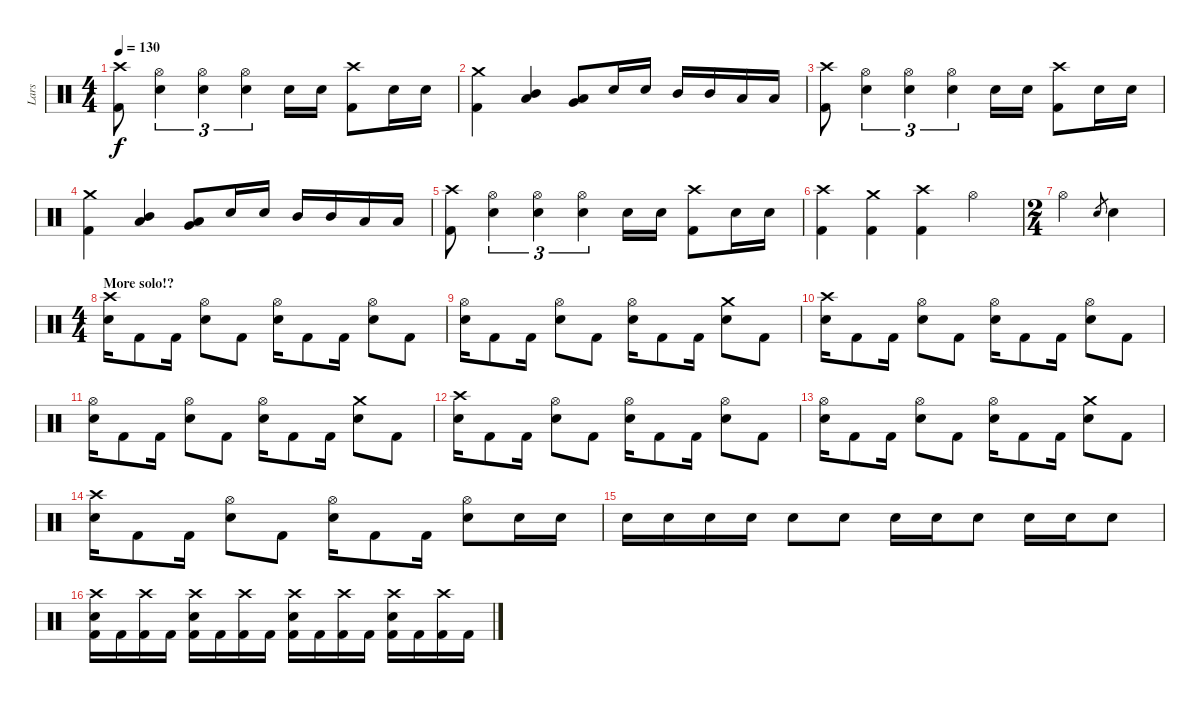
\track ("Lars" "Lars") {instrument percussion}
\staff {score}
\articulation defaults
\ts (4 4)
\tempo 130
\clef neutral
\ks c
("Kick (hit) 2" "Crash high (hit)").8{dy f} ("Electric Snare (hit)" "Hi-Hat (open)").4{tu (3 2)} ("Electric Snare (hit)" "Hi-Hat (open)").4{tu (3 2)} ("Electric Snare (hit)" "Hi-Hat (open)").4{tu (3 2)} "Electric Snare (hit)".16 "Electric Snare (hit)".16 ("Kick (hit) 2" "Crash high (hit)").8 "Electric Snare (hit)".16 "Electric Snare (hit)".16 |
("Kick (hit) 2" "Crash medium (hit)").4 ("Mid Tom (hit)" "Low Tom (hit)").4{bu 120} ("Low Tom (hit)" "Very Low Tom (hit)").8{bu 120} "Electric Snare (hit)".16 "Electric Snare (hit)".16 "Mid Tom (hit)".16 "Mid Tom (hit)".16 "Low Tom (hit)".16 "Low Tom (hit)".16 |
("Kick (hit) 2" "Crash high (hit)").8 ("Electric Snare (hit)" "Hi-Hat (open)").4{tu (3 2)} ("Electric Snare (hit)" "Hi-Hat (open)").4{tu (3 2)} ("Electric Snare (hit)" "Hi-Hat (open)").4{tu (3 2)} "Electric Snare (hit)".16 "Electric Snare (hit)".16 ("Kick (hit) 2" "Crash high (hit)").8 "Electric Snare (hit)".16 "Electric Snare (hit)".16 |
("Kick (hit) 2" "Crash medium (hit)").4 ("Mid Tom (hit)" "Low Tom (hit)").4{bu 120} ("Low Tom (hit)" "Very Low Tom (hit)").8{bu 120} "Electric Snare (hit)".16 "Electric Snare (hit)".16 "Mid Tom (hit)".16 "Mid Tom (hit)".16 "Low Tom (hit)".16 "Low Tom (hit)".16 |
("Kick (hit) 2" "Crash high (hit)").8 ("Electric Snare (hit)" "Hi-Hat (open)").4{tu (3 2)} ("Electric Snare (hit)" "Hi-Hat (open)").4{tu (3 2)} ("Electric Snare (hit)" "Hi-Hat (open)").4{tu (3 2)} "Electric Snare (hit)".16 "Electric Snare (hit)".16 ("Kick (hit) 2" "Crash high (hit)").8 "Electric Snare (hit)".16 "Electric Snare (hit)".16 |
("Kick (hit) 2" "Crash high (hit)").4 ("Kick (hit) 2" "Crash medium (hit)").4 ("Kick (hit) 2" "Crash high (hit)").4 "Hi-Hat (open)".4 |
\ts (2 4)
"Hi-Hat (open)".4 "Electric Snare (hit)".8{gr} "Electric Snare (hit)".4 |
\ts (4 4)
\section ("" "More solo!?")
("Electric Snare (hit)" "Crash high (hit)").16 "Kick (hit) 2".8 "Kick (hit) 2".16 ("Electric Snare (hit)" "Hi-Hat (open)").8 "Kick (hit) 2".8 ("Electric Snare (hit)" "Hi-Hat (open)").16 "Kick (hit) 2".8 "Kick (hit) 2".16 ("Electric Snare (hit)" "Hi-Hat (open)").8 "Kick (hit) 2".8 |
("Electric Snare (hit)" "Hi-Hat (open)").16 "Kick (hit) 2".8 "Kick (hit) 2".16 ("Electric Snare (hit)" "Hi-Hat (open)").8 "Kick (hit) 2".8 ("Electric Snare (hit)" "Hi-Hat (open)").16 "Kick (hit) 2".8 "Kick (hit) 2".16 ("Electric Snare (hit)" "Crash medium (hit)").8 "Kick (hit) 2".8 |
("Electric Snare (hit)" "Crash high (hit)").16 "Kick (hit) 2".8 "Kick (hit) 2".16 ("Electric Snare (hit)" "Hi-Hat (open)").8 "Kick (hit) 2".8 ("Electric Snare (hit)" "Hi-Hat (open)").16 "Kick (hit) 2".8 "Kick (hit) 2".16 ("Electric Snare (hit)" "Hi-Hat (open)").8 "Kick (hit) 2".8 |
("Electric Snare (hit)" "Hi-Hat (open)").16 "Kick (hit) 2".8 "Kick (hit) 2".16 ("Electric Snare (hit)" "Hi-Hat (open)").8 "Kick (hit) 2".8 ("Electric Snare (hit)" "Hi-Hat (open)").16 "Kick (hit) 2".8 "Kick (hit) 2".16 ("Electric Snare (hit)" "Crash medium (hit)").8 "Kick (hit) 2".8 |
("Electric Snare (hit)" "Crash high (hit)").16 "Kick (hit) 2".8 "Kick (hit) 2".16 ("Electric Snare (hit)" "Hi-Hat (open)").8 "Kick (hit) 2".8 ("Electric Snare (hit)" "Hi-Hat (open)").16 "Kick (hit) 2".8 "Kick (hit) 2".16 ("Electric Snare (hit)" "Hi-Hat (open)").8 "Kick (hit) 2".8 |
("Electric Snare (hit)" "Hi-Hat (open)").16 "Kick (hit) 2".8 "Kick (hit) 2".16 ("Electric Snare (hit)" "Hi-Hat (open)").8 "Kick (hit) 2".8 ("Electric Snare (hit)" "Hi-Hat (open)").16 "Kick (hit) 2".8 "Kick (hit) 2".16 ("Electric Snare (hit)" "Crash medium (hit)").8 "Kick (hit) 2".8 |
("Electric Snare (hit)" "Crash high (hit)").16 "Kick (hit) 2".8 "Kick (hit) 2".16 ("Electric Snare (hit)" "Hi-Hat (open)").8 "Kick (hit) 2".8 ("Electric Snare (hit)" "Hi-Hat (open)").16 "Kick (hit) 2".8 "Kick (hit) 2".16 ("Electric Snare (hit)" "Hi-Hat (open)").8 "Electric Snare (hit)".16 "Electric Snare (hit)".16 |
"Electric Snare (hit)".16 "Electric Snare (hit)".16 "Electric Snare (hit)".16 "Electric Snare (hit)".16 "Electric Snare (hit)".8 "Electric Snare (hit)".8 "Electric Snare (hit)".16 "Electric Snare (hit)".16 "Electric Snare (hit)".8 "Electric Snare (hit)".16 "Electric Snare (hit)".16 "Electric Snare (hit)".8 |
("Kick (hit) 2" "Electric Snare (hit)" "Crash high (hit)").16 "Kick (hit) 2".16 ("Kick (hit) 2" "Crash high (hit)").16 "Kick (hit) 2".16 ("Kick (hit) 2" "Electric Snare (hit)" "Crash high (hit)").16 "Kick (hit) 2".16 ("Kick (hit) 2" "Crash high (hit)").16 "Kick (hit) 2".16 ("Kick (hit) 2" "Electric Snare (hit)" "Crash high (hit)").16 "Kick (hit) 2".16 ("Kick (hit) 2" "Crash high (hit)").16 "Kick (hit) 2".16 ("Kick (hit) 2" "Electric Snare (hit)" "Crash high (hit)").16 "Kick (hit) 2".16 ("Kick (hit) 2" "Crash high (hit)").16 "Kick (hit) 2".16
